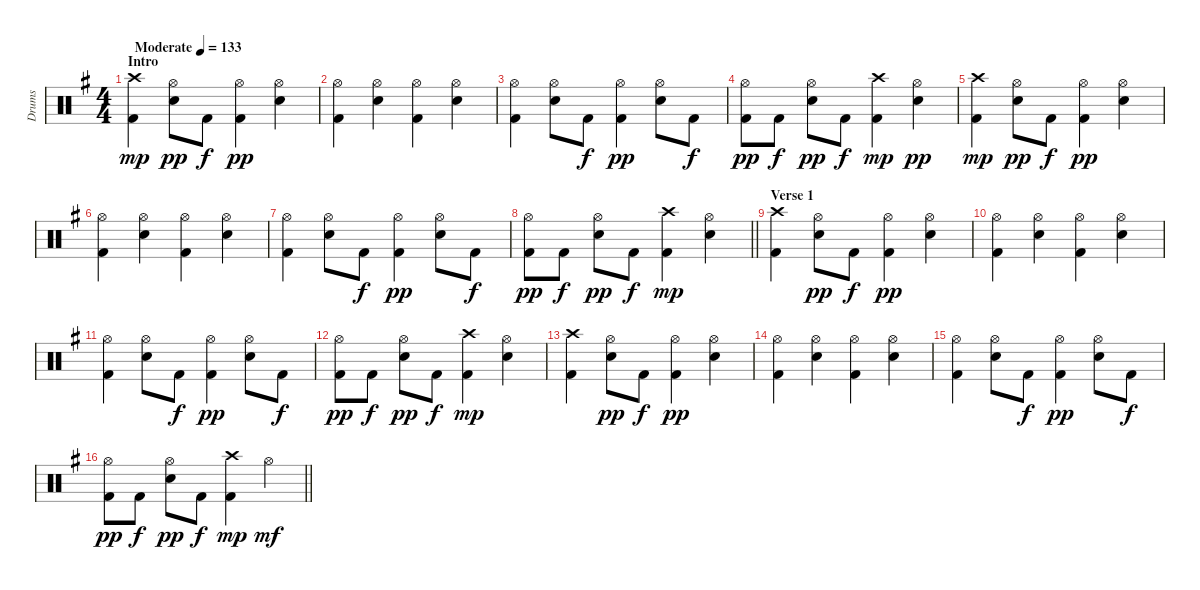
\track ("Drums" "Drums") {instrument percussion}
\staff {score}
\articulation defaults
\ts (4 4)
\section ("" "Intro")
\tempo (133 "Moderate")
\clef neutral
\ks g
("Crash high (hit)" "Kick (hit) 2").4{dy mp} ("Electric Snare (hit)" "Hi-Hat (open)").8{dy pp} "Kick (hit) 2".8{dy f} ("Kick (hit) 2" "Hi-Hat (open)").4{dy pp} ("Electric Snare (hit)" "Hi-Hat (open)").4 |
("Kick (hit) 2" "Hi-Hat (open)").4 ("Electric Snare (hit)" "Hi-Hat (open)").4 ("Kick (hit) 2" "Hi-Hat (open)").4 ("Electric Snare (hit)" "Hi-Hat (open)").4 |
("Kick (hit) 2" "Hi-Hat (open)").4 ("Electric Snare (hit)" "Hi-Hat (open)").8 "Kick (hit) 2".8{dy f} ("Kick (hit) 2" "Hi-Hat (open)").4{dy pp} ("Electric Snare (hit)" "Hi-Hat (open)").8 "Kick (hit) 2".8{dy f} |
("Kick (hit) 2" "Hi-Hat (open)").8{dy pp} "Kick (hit) 2".8{dy f} ("Electric Snare (hit)" "Hi-Hat (open)").8{dy pp} "Kick (hit) 2".8{dy f} ("Kick (hit) 2" "Crash high (hit)").4{dy mp} ("Electric Snare (hit)" "Hi-Hat (open)").4{dy pp} |
("Crash high (hit)" "Kick (hit) 2").4{dy mp} ("Electric Snare (hit)" "Hi-Hat (open)").8{dy pp} "Kick (hit) 2".8{dy f} ("Kick (hit) 2" "Hi-Hat (open)").4{dy pp} ("Electric Snare (hit)" "Hi-Hat (open)").4 |
("Kick (hit) 2" "Hi-Hat (open)").4 ("Electric Snare (hit)" "Hi-Hat (open)").4 ("Kick (hit) 2" "Hi-Hat (open)").4 ("Electric Snare (hit)" "Hi-Hat (open)").4 |
("Kick (hit) 2" "Hi-Hat (open)").4 ("Electric Snare (hit)" "Hi-Hat (open)").8 "Kick (hit) 2".8{dy f} ("Kick (hit) 2" "Hi-Hat (open)").4{dy pp} ("Electric Snare (hit)" "Hi-Hat (open)").8 "Kick (hit) 2".8{dy f} |
\barLineRight lightlight
("Kick (hit) 2" "Hi-Hat (open)").8{dy pp} "Kick (hit) 2".8{dy f} ("Electric Snare (hit)" "Hi-Hat (open)").8{dy pp} "Kick (hit) 2".8{dy f} ("Kick (hit) 2" "Crash high (hit)").4{dy mp} ("Electric Snare (hit)" "Hi-Hat (open)").4 |
\section ("" "Verse 1")
("Crash high (hit)" "Kick (hit) 2").4 ("Electric Snare (hit)" "Hi-Hat (open)").8{dy pp} "Kick (hit) 2".8{dy f} ("Kick (hit) 2" "Hi-Hat (open)").4{dy pp} ("Electric Snare (hit)" "Hi-Hat (open)").4 |
("Kick (hit) 2" "Hi-Hat (open)").4 ("Electric Snare (hit)" "Hi-Hat (open)").4 ("Kick (hit) 2" "Hi-Hat (open)").4 ("Electric Snare (hit)" "Hi-Hat (open)").4 |
("Kick (hit) 2" "Hi-Hat (open)").4 ("Electric Snare (hit)" "Hi-Hat (open)").8 "Kick (hit) 2".8{dy f} ("Kick (hit) 2" "Hi-Hat (open)").4{dy pp} ("Electric Snare (hit)" "Hi-Hat (open)").8 "Kick (hit) 2".8{dy f} |
("Kick (hit) 2" "Hi-Hat (open)").8{dy pp} "Kick (hit) 2".8{dy f} ("Electric Snare (hit)" "Hi-Hat (open)").8{dy pp} "Kick (hit) 2".8{dy f} ("Kick (hit) 2" "Crash high (hit)").4{dy mp} ("Electric Snare (hit)" "Hi-Hat (open)").4 |
("Crash high (hit)" "Kick (hit) 2").4 ("Electric Snare (hit)" "Hi-Hat (open)").8{dy pp} "Kick (hit) 2".8{dy f} ("Kick (hit) 2" "Hi-Hat (open)").4{dy pp} ("Electric Snare (hit)" "Hi-Hat (open)").4 |
("Kick (hit) 2" "Hi-Hat (open)").4 ("Electric Snare (hit)" "Hi-Hat (open)").4 ("Kick (hit) 2" "Hi-Hat (open)").4 ("Electric Snare (hit)" "Hi-Hat (open)").4 |
("Kick (hit) 2" "Hi-Hat (open)").4 ("Electric Snare (hit)" "Hi-Hat (open)").8 "Kick (hit) 2".8{dy f} ("Kick (hit) 2" "Hi-Hat (open)").4{dy pp} ("Electric Snare (hit)" "Hi-Hat (open)").8 "Kick (hit) 2".8{dy f} |
\barLineRight lightlight
("Kick (hit) 2" "Hi-Hat (open)").8{dy pp} "Kick (hit) 2".8{dy f} ("Electric Snare (hit)" "Hi-Hat (open)").8{dy pp} "Kick (hit) 2".8{dy f} ("Kick (hit) 2" "Crash high (hit)").4{dy mp} "Hi-Hat (open)".4{dy mf}
